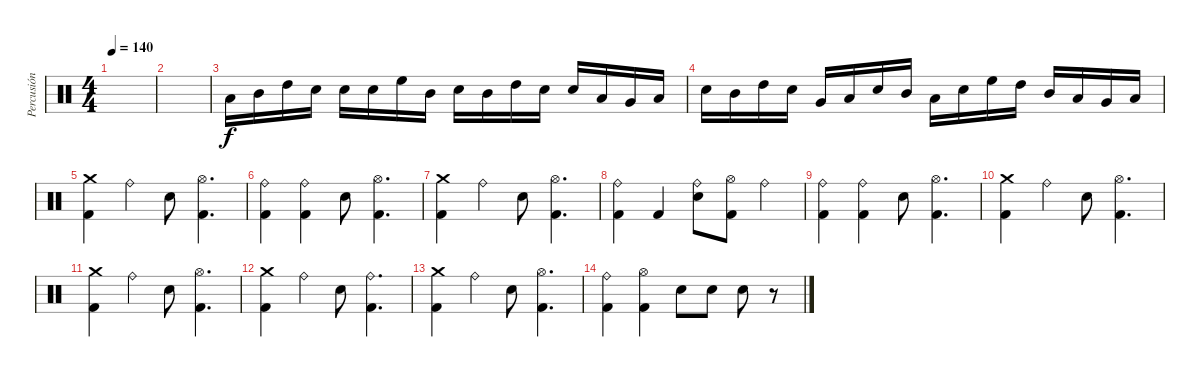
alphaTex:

\track ("Percusión" "Percusión") {instrument percussion}
\staff {score}
\articulation defaults
\ts (4 4)
\tempo 140
\clef neutral
\ks c
|
|
"Low Tom (hit)".16 "Mid Tom (hit)".16 "High Tom (hit)".16 "Electric Snare (hit)".16 "Electric Snare (hit)".16 "Electric Snare (hit)".16 "High Floor Tom (hit)".16 "Mid Tom (hit)".16 "Electric Snare (hit)".16 "Mid Tom (hit)".16 "High Tom (hit)".16 "Electric Snare (hit)".16 "Electric Snare (hit)".16 "Low Floor Tom (hit)".16 "Very Low Tom (hit)".16 "Low Tom (hit)".16 |
"Electric Snare (hit)".16 "Mid Tom (hit)".16 "High Tom (hit)".16 "Electric Snare (hit)".16 "Very Low Tom (hit)".16 "Low Tom (hit)".16 "Electric Snare (hit)".16 "Mid Tom (hit)".16 "Low Tom (hit)".16 "Electric Snare (hit)".16 "High Floor Tom (hit)".16 "High Tom (hit)".16 "Mid Tom (hit)".16 "Low Tom (hit)".16 "Very Low Tom (hit)".16 "Low Floor Tom (hit)".16 |
("Crash medium (hit)" "Kick (hit) 2").4 "Ride (bell)".4 "Electric Snare (hit)".8 ("Hi-Hat (open)" "Kick (hit) 2").4{d} |
("Ride (bell)" "Kick (hit) 2").4 ("Ride (bell)" "Kick (hit) 2").4 "Electric Snare (hit)".8 ("Hi-Hat (open)" "Kick (hit) 2").4{d} |
("Crash medium (hit)" "Kick (hit) 2").4 "Ride (bell)".4 "Electric Snare (hit)".8 ("Hi-Hat (open)" "Kick (hit) 2").4{d} |
("Ride (bell)" "Kick (hit) 2").4 "Kick (hit) 2".4 ("Electric Snare (hit)" "Ride (bell)").8 ("Hi-Hat (open)" "Kick (hit) 2").8 "Ride (bell)".4 |
("Ride (bell)" "Kick (hit) 2").4 ("Ride (bell)" "Kick (hit) 2").4 "Electric Snare (hit)".8 ("Hi-Hat (open)" "Kick (hit) 2").4{d} |
("Crash medium (hit)" "Kick (hit) 2").4 "Ride (bell)".4 "Electric Snare (hit)".8 ("Hi-Hat (open)" "Kick (hit) 2").4{d} |
("Crash medium (hit)" "Kick (hit) 2").4 "Ride (bell)".4 "Electric Snare (hit)".8 ("Hi-Hat (open)" "Kick (hit) 2").4{d} |
("Crash medium (hit)" "Kick (hit) 2").4 "Ride (bell)".4 "Electric Snare (hit)".8 ("Ride (bell)" "Kick (hit) 2").4{d} |
("Crash medium (hit)" "Kick (hit) 2").4 "Ride (bell)".4 "Electric Snare (hit)".8 ("Hi-Hat (open)" "Kick (hit) 2").4{d} |
("Ride (bell)" "Kick (hit) 2").4 ("Hi-Hat (open)" "Kick (hit) 2").4 "Electric Snare (hit)".8 "Electric Snare (hit)".8 "Electric Snare (hit)".8 r.8
